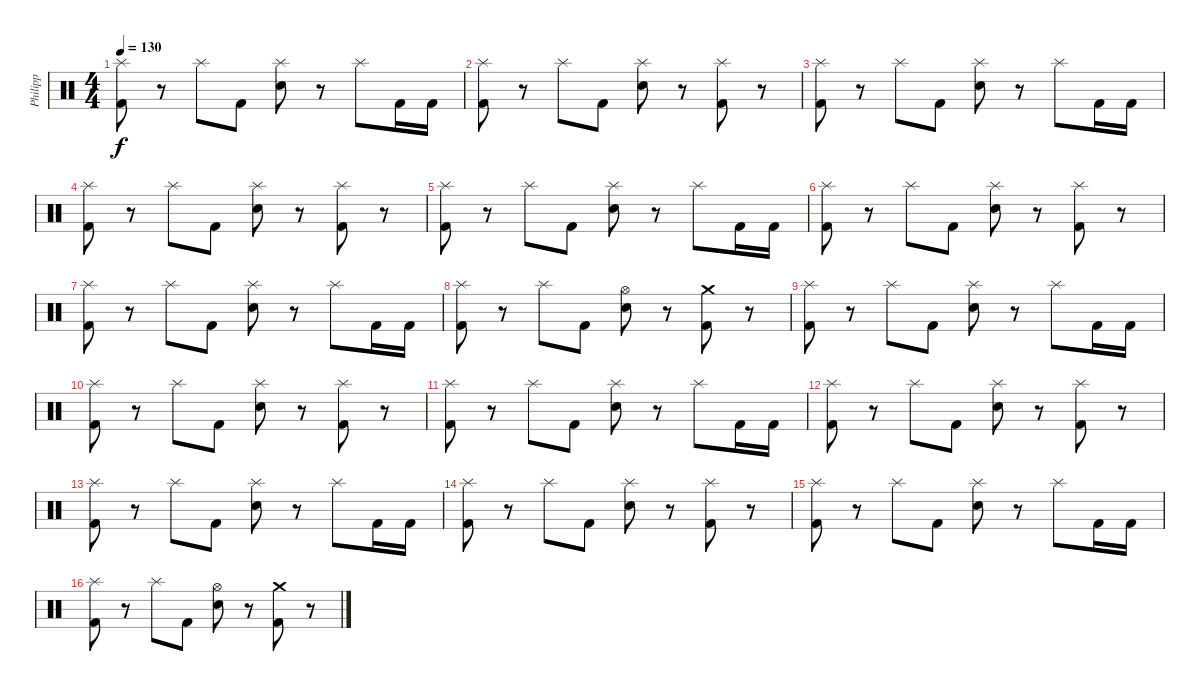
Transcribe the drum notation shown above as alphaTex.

\track ("Philipp" "Philipp") {instrument percussion}
\staff {score}
\articulation defaults
\ts (4 4)
\tempo 130
\clef neutral
\ks c
("Splash (hit)" "Kick (hit) 2").8{dy f} r.8 "Splash (hit)".8 "Kick (hit) 2".8 ("Splash (hit)" "Electric Snare (hit)").8 r.8 "Splash (hit)".8 "Kick (hit) 2".16 "Kick (hit) 2".16 |
("Splash (hit)" "Kick (hit) 2").8 r.8 "Splash (hit)".8 "Kick (hit) 2".8 ("Splash (hit)" "Electric Snare (hit)").8 r.8 ("Splash (hit)" "Kick (hit) 2").8 r.8 |
("Splash (hit)" "Kick (hit) 2").8 r.8 "Splash (hit)".8 "Kick (hit) 2".8 ("Splash (hit)" "Electric Snare (hit)").8 r.8 "Splash (hit)".8 "Kick (hit) 2".16 "Kick (hit) 2".16 |
("Splash (hit)" "Kick (hit) 2").8 r.8 "Splash (hit)".8 "Kick (hit) 2".8 ("Splash (hit)" "Electric Snare (hit)").8 r.8 ("Splash (hit)" "Kick (hit) 2").8 r.8 |
("Splash (hit)" "Kick (hit) 2").8 r.8 "Splash (hit)".8 "Kick (hit) 2".8 ("Splash (hit)" "Electric Snare (hit)").8 r.8 "Splash (hit)".8 "Kick (hit) 2".16 "Kick (hit) 2".16 |
("Splash (hit)" "Kick (hit) 2").8 r.8 "Splash (hit)".8 "Kick (hit) 2".8 ("Splash (hit)" "Electric Snare (hit)").8 r.8 ("Splash (hit)" "Kick (hit) 2").8 r.8 |
("Splash (hit)" "Kick (hit) 2").8 r.8 "Splash (hit)".8 "Kick (hit) 2".8 ("Splash (hit)" "Electric Snare (hit)").8 r.8 "Splash (hit)".8 "Kick (hit) 2".16 "Kick (hit) 2".16 |
("Splash (hit)" "Kick (hit) 2").8 r.8 "Splash (hit)".8 "Kick (hit) 2".8 ("Hi-Hat (open)" "Electric Snare (hit)").8 r.8 ("Crash medium (hit)" "Kick (hit) 2").8 r.8 |
("Splash (hit)" "Kick (hit) 2").8 r.8 "Splash (hit)".8 "Kick (hit) 2".8 ("Splash (hit)" "Electric Snare (hit)").8 r.8 "Splash (hit)".8 "Kick (hit) 2".16 "Kick (hit) 2".16 |
("Splash (hit)" "Kick (hit) 2").8 r.8 "Splash (hit)".8 "Kick (hit) 2".8 ("Splash (hit)" "Electric Snare (hit)").8 r.8 ("Splash (hit)" "Kick (hit) 2").8 r.8 |
("Splash (hit)" "Kick (hit) 2").8 r.8 "Splash (hit)".8 "Kick (hit) 2".8 ("Splash (hit)" "Electric Snare (hit)").8 r.8 "Splash (hit)".8 "Kick (hit) 2".16 "Kick (hit) 2".16 |
("Splash (hit)" "Kick (hit) 2").8 r.8 "Splash (hit)".8 "Kick (hit) 2".8 ("Splash (hit)" "Electric Snare (hit)").8 r.8 ("Splash (hit)" "Kick (hit) 2").8 r.8 |
("Splash (hit)" "Kick (hit) 2").8 r.8 "Splash (hit)".8 "Kick (hit) 2".8 ("Splash (hit)" "Electric Snare (hit)").8 r.8 "Splash (hit)".8 "Kick (hit) 2".16 "Kick (hit) 2".16 |
("Splash (hit)" "Kick (hit) 2").8 r.8 "Splash (hit)".8 "Kick (hit) 2".8 ("Splash (hit)" "Electric Snare (hit)").8 r.8 ("Splash (hit)" "Kick (hit) 2").8 r.8 |
("Splash (hit)" "Kick (hit) 2").8 r.8 "Splash (hit)".8 "Kick (hit) 2".8 ("Splash (hit)" "Electric Snare (hit)").8 r.8 "Splash (hit)".8 "Kick (hit) 2".16 "Kick (hit) 2".16 |
("Splash (hit)" "Kick (hit) 2").8 r.8 "Splash (hit)".8 "Kick (hit) 2".8 ("Hi-Hat (open)" "Electric Snare (hit)").8 r.8 ("Crash medium (hit)" "Kick (hit) 2").8 r.8
